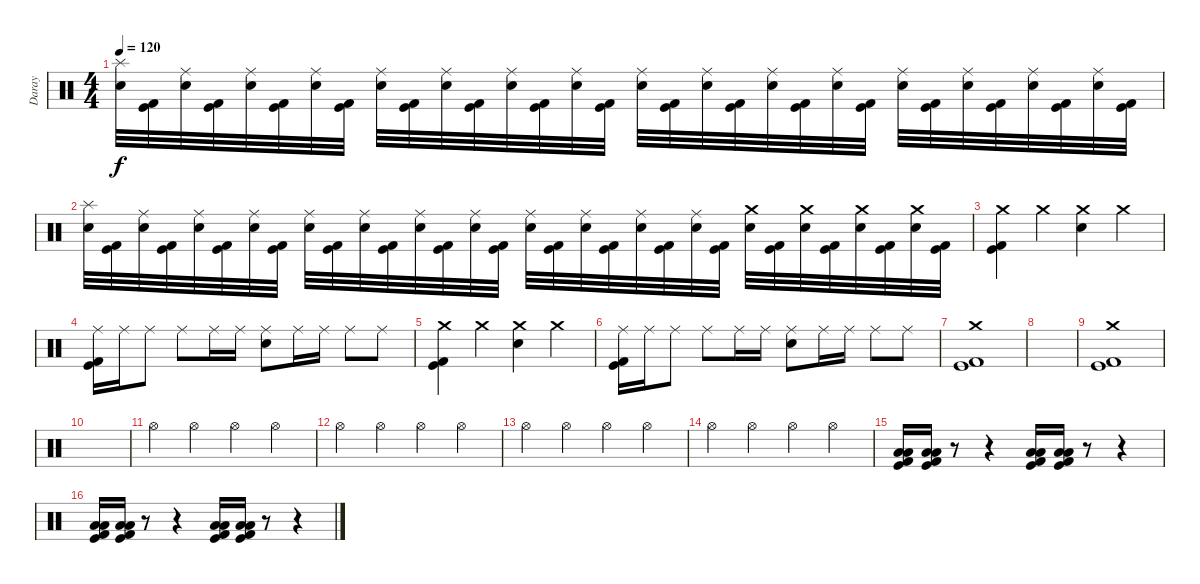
\track ("Daray" "Daray") {instrument percussion}
\staff {score}
\articulation defaults
\ts (4 4)
\tempo 120
\clef neutral
\ks c
("Splash (hit)" "Snare (hit) 2").32{dy f} ("Kick (hit) 2" "Kick (hit)").32 ("Ride (middle)" "Snare (hit) 2").32 ("Kick (hit) 2" "Kick (hit)").32 ("Ride (middle)" "Snare (hit) 2").32 ("Kick (hit) 2" "Kick (hit)").32 ("Ride (middle)" "Snare (hit) 2").32 ("Kick (hit) 2" "Kick (hit)").32 ("Ride (middle)" "Snare (hit) 2").32 ("Kick (hit) 2" "Kick (hit)").32 ("Ride (middle)" "Snare (hit) 2").32 ("Kick (hit) 2" "Kick (hit)").32 ("Ride (middle)" "Snare (hit) 2").32 ("Kick (hit) 2" "Kick (hit)").32 ("Ride (middle)" "Snare (hit) 2").32 ("Kick (hit) 2" "Kick (hit)").32 ("Ride (middle)" "Snare (hit) 2").32 ("Kick (hit) 2" "Kick (hit)").32 ("Ride (middle)" "Snare (hit) 2").32 ("Kick (hit) 2" "Kick (hit)").32 ("Ride (middle)" "Snare (hit) 2").32 ("Kick (hit) 2" "Kick (hit)").32 ("Ride (middle)" "Snare (hit) 2").32 ("Kick (hit) 2" "Kick (hit)").32 ("Ride (middle)" "Snare (hit) 2").32 ("Kick (hit) 2" "Kick (hit)").32 ("Ride (middle)" "Snare (hit) 2").32 ("Kick (hit) 2" "Kick (hit)").32 ("Ride (middle)" "Snare (hit) 2").32 ("Kick (hit) 2" "Kick (hit)").32 ("Ride (middle)" "Snare (hit) 2").32 ("Kick (hit) 2" "Kick (hit)").32 |
("Splash (hit)" "Snare (hit) 2").32 ("Kick (hit) 2" "Kick (hit)").32 ("Ride (middle)" "Snare (hit) 2").32 ("Kick (hit) 2" "Kick (hit)").32 ("Ride (middle)" "Snare (hit) 2").32 ("Kick (hit) 2" "Kick (hit)").32 ("Ride (middle)" "Snare (hit) 2").32 ("Kick (hit) 2" "Kick (hit)").32 ("Ride (middle)" "Snare (hit) 2").32 ("Kick (hit) 2" "Kick (hit)").32 ("Ride (middle)" "Snare (hit) 2").32 ("Kick (hit) 2" "Kick (hit)").32 ("Ride (middle)" "Snare (hit) 2").32 ("Kick (hit) 2" "Kick (hit)").32 ("Ride (middle)" "Snare (hit) 2").32 ("Kick (hit) 2" "Kick (hit)").32 ("Ride (middle)" "Snare (hit) 2").32 ("Kick (hit) 2" "Kick (hit)").32 ("Ride (middle)" "Snare (hit) 2").32 ("Kick (hit) 2" "Kick (hit)").32 ("Ride (middle)" "Snare (hit) 2").32 ("Kick (hit) 2" "Kick (hit)").32 ("Ride (middle)" "Snare (hit) 2").32 ("Kick (hit) 2" "Kick (hit)").32 ("Crash medium (hit)" "Snare (hit) 2").32 ("Kick (hit) 2" "Kick (hit)").32 ("Crash medium (hit)" "Snare (hit) 2").32 ("Kick (hit) 2" "Kick (hit)").32 ("Crash medium (hit)" "Snare (hit) 2").32 ("Kick (hit) 2" "Kick (hit)").32 ("Crash medium (hit)" "Snare (hit) 2").32 ("Kick (hit) 2" "Kick (hit)").32 |
("Crash medium (hit)" "Kick (hit) 2" "Kick (hit)").4 "Crash medium (hit)".4 ("Crash medium (hit)" "Snare (hit) 2").4 "Crash medium (hit)".4 |
("Ride (middle)" "Kick (hit) 2" "Kick (hit)").16 "Ride (middle)".16 "Ride (middle)".8 "Ride (middle)".8 "Ride (middle)".16 "Ride (middle)".16 ("Ride (middle)" "Snare (hit) 2").8 "Ride (middle)".16 "Ride (middle)".16 "Ride (middle)".8 "Ride (middle)".8 |
("Crash medium (hit)" "Kick (hit) 2" "Kick (hit)").4 "Crash medium (hit)".4 ("Crash medium (hit)" "Snare (hit) 2").4 "Crash medium (hit)".4 |
("Ride (middle)" "Kick (hit) 2" "Kick (hit)").16 "Ride (middle)".16 "Ride (middle)".8 "Ride (middle)".8 "Ride (middle)".16 "Ride (middle)".16 ("Ride (middle)" "Snare (hit) 2").8 "Ride (middle)".16 "Ride (middle)".16 "Ride (middle)".8 "Ride (middle)".8 |
("Crash medium (hit)" "Kick (hit) 2" "Kick (hit)").1 |
|
("Crash medium (hit)" "Kick (hit) 2" "Kick (hit)").1 |
|
"Hi-Hat (open)".4 "Hi-Hat (open)".4 "Hi-Hat (open)".4 "Hi-Hat (open)".4 |
"Hi-Hat (open)".4 "Hi-Hat (open)".4 "Hi-Hat (open)".4 "Hi-Hat (open)".4 |
"Hi-Hat (open)".4 "Hi-Hat (open)".4 "Hi-Hat (open)".4 "Hi-Hat (open)".4 |
"Hi-Hat (open)".4 "Hi-Hat (open)".4 "Hi-Hat (open)".4 "Hi-Hat (open)".4 |
("Low Tom (hit)" "Low Floor Tom (hit)" "Kick (hit) 2" "Kick (hit)").16 ("Low Tom (hit)" "Low Floor Tom (hit)" "Kick (hit) 2" "Kick (hit)").16 r.8 r.4 ("Low Tom (hit)" "Low Floor Tom (hit)" "Kick (hit) 2" "Kick (hit)").16 ("Low Tom (hit)" "Low Floor Tom (hit)" "Kick (hit) 2" "Kick (hit)").16 r.8 r.4 |
("Low Tom (hit)" "Low Floor Tom (hit)" "Kick (hit) 2" "Kick (hit)").16 ("Low Tom (hit)" "Low Floor Tom (hit)" "Kick (hit) 2" "Kick (hit)").16 r.8 r.4 ("Low Tom (hit)" "Low Floor Tom (hit)" "Kick (hit) 2" "Kick (hit)").16 ("Low Tom (hit)" "Low Floor Tom (hit)" "Kick (hit) 2" "Kick (hit)").16 r.8 r.4
